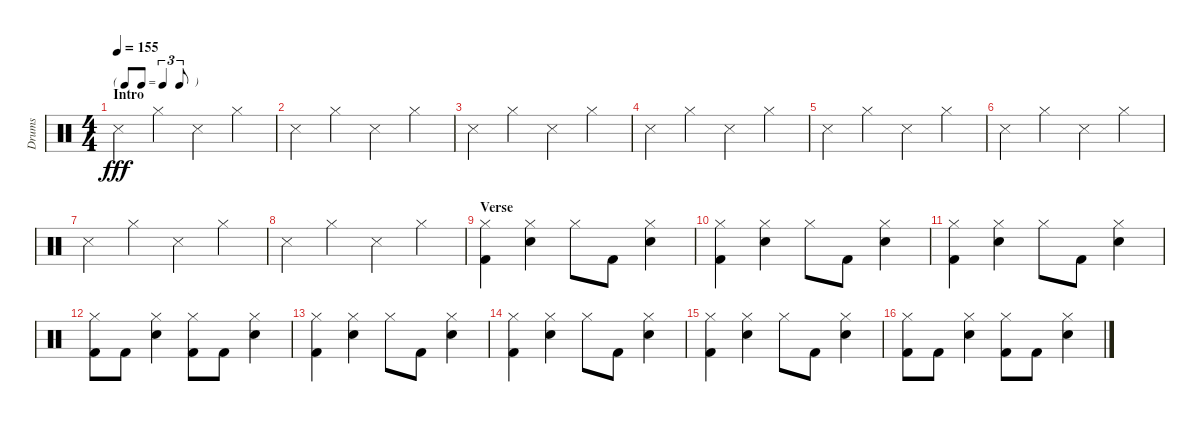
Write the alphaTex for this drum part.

\track ("Drums" "Drums") {instrument percussion}
\staff {score}
\articulation defaults
\ts (4 4)
\tf triplet8th
\section ("" "Intro")
\tempo 155
\clef neutral
\ks c "Snare (side stick) 3".4{dy fff} "Hi-Hat (closed)".4 "Snare (side stick) 3".4 "Hi-Hat (closed)".4
|
"Snare (side stick) 3".4 "Hi-Hat (closed)".4 "Snare (side stick) 3".4 "Hi-Hat (closed)".4 |
"Snare (side stick) 3".4 "Hi-Hat (closed)".4 "Snare (side stick) 3".4 "Hi-Hat (closed)".4 |
"Snare (side stick) 3".4 "Hi-Hat (closed)".4 "Snare (side stick) 3".4 "Hi-Hat (closed)".4 |
"Snare (side stick) 3".4 "Hi-Hat (closed)".4 "Snare (side stick) 3".4 "Hi-Hat (closed)".4 |
"Snare (side stick) 3".4 "Hi-Hat (closed)".4 "Snare (side stick) 3".4 "Hi-Hat (closed)".4 |
"Snare (side stick) 3".4 "Hi-Hat (closed)".4 "Snare (side stick) 3".4 "Hi-Hat (closed)".4 |
"Snare (side stick) 3".4 "Hi-Hat (closed)".4 "Snare (side stick) 3".4 "Hi-Hat (closed)".4 |
\section ("" "Verse")
("Hi-Hat (closed)" "Kick (hit) 2").4 ("Hi-Hat (closed)" "Snare (hit) 2").4 "Hi-Hat (closed)".8 "Kick (hit) 2".8 ("Hi-Hat (closed)" "Snare (hit) 2").4 |
("Hi-Hat (closed)" "Kick (hit) 2").4 ("Hi-Hat (closed)" "Snare (hit) 2").4 "Hi-Hat (closed)".8 "Kick (hit) 2".8 ("Hi-Hat (closed)" "Snare (hit) 2").4 |
("Hi-Hat (closed)" "Kick (hit) 2").4 ("Hi-Hat (closed)" "Snare (hit) 2").4 "Hi-Hat (closed)".8 "Kick (hit) 2".8 ("Hi-Hat (closed)" "Snare (hit) 2").4 |
("Hi-Hat (closed)" "Kick (hit) 2").8 "Kick (hit) 2".8 ("Hi-Hat (closed)" "Snare (hit) 2").4 ("Hi-Hat (closed)" "Kick (hit) 2").8 "Kick (hit) 2".8 ("Hi-Hat (closed)" "Snare (hit) 2").4 |
("Hi-Hat (closed)" "Kick (hit) 2").4 ("Hi-Hat (closed)" "Snare (hit) 2").4 "Hi-Hat (closed)".8 "Kick (hit) 2".8 ("Hi-Hat (closed)" "Snare (hit) 2").4 |
("Hi-Hat (closed)" "Kick (hit) 2").4 ("Hi-Hat (closed)" "Snare (hit) 2").4 "Hi-Hat (closed)".8 "Kick (hit) 2".8 ("Hi-Hat (closed)" "Snare (hit) 2").4 |
("Hi-Hat (closed)" "Kick (hit) 2").4 ("Hi-Hat (closed)" "Snare (hit) 2").4 "Hi-Hat (closed)".8 "Kick (hit) 2".8 ("Hi-Hat (closed)" "Snare (hit) 2").4 |
("Hi-Hat (closed)" "Kick (hit) 2").8 "Kick (hit) 2".8 ("Hi-Hat (closed)" "Snare (hit) 2").4 ("Hi-Hat (closed)" "Kick (hit) 2").8 "Kick (hit) 2".8 ("Hi-Hat (closed)" "Snare (hit) 2").4
